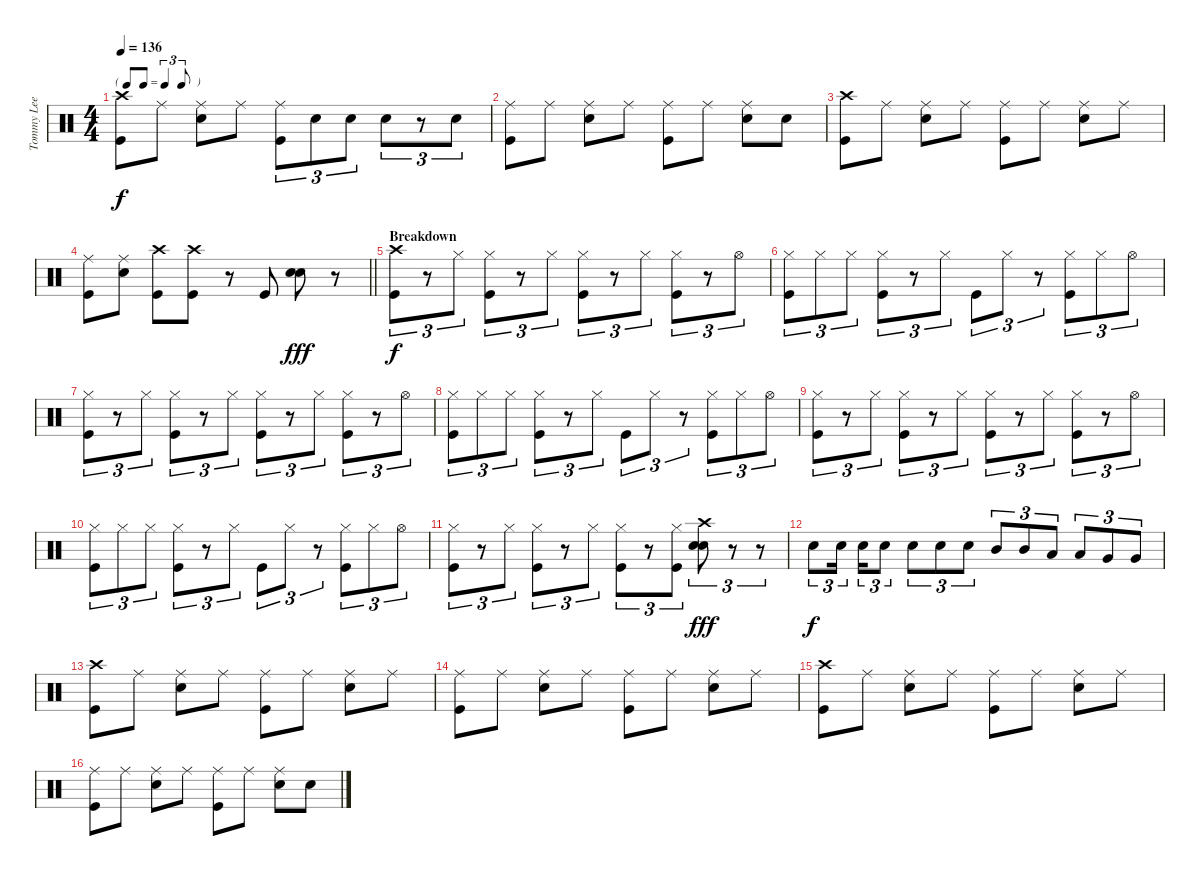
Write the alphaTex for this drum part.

\track ("Tommy Lee" "Tommy Lee") {instrument percussion}
\staff {score}
\articulation defaults
\ts (4 4)
\tf triplet8th
\tempo 136
\clef neutral
\ks c
("Crash high (hit)" "Kick (hit)").8{dy f} "Ride (middle)".8 ("Ride (middle)" "Snare (hit) 2").8 "Ride (middle)".8 ("Ride (middle)" "Kick (hit)").8{tu (3 2)} "Snare (hit) 2".8{tu (3 2)} "Snare (hit) 2".8{tu (3 2)} "Snare (hit) 2".8{tu (3 2)} r.8{tu (3 2)} "Snare (hit) 2".8{tu (3 2)} |
("Ride (middle)" "Kick (hit)").8 "Ride (middle)".8 ("Ride (middle)" "Snare (hit) 2").8 "Ride (middle)".8 ("Ride (middle)" "Kick (hit)").8 "Ride (middle)".8 ("Ride (middle)" "Snare (hit) 2").8 "Snare (hit) 2".8 |
("Crash high (hit)" "Kick (hit)").8 "Ride (middle)".8 ("Ride (middle)" "Snare (hit) 2").8 "Ride (middle)".8 ("Ride (middle)" "Kick (hit)").8 "Ride (middle)".8 ("Ride (middle)" "Snare (hit) 2").8 "Ride (middle)".8 |
\barLineRight lightlight
("Ride (middle)" "Kick (hit)").8 ("Ride (middle)" "Snare (hit) 2").8 ("Crash high (hit)" "Kick (hit)").8 ("Crash high (hit)" "Kick (hit)").8 r.8 "Kick (hit)".8 ("Snare (hit) 2" "Snare (hit) 2").8{dy fff} r.8 |
\section ("" "Breakdown")
("Crash high (hit)" "Kick (hit)").8{tu (3 2) dy f} r.8{tu (3 2)} "Hi-Hat (closed)".8{tu (3 2)} ("Hi-Hat (closed)" "Kick (hit)").8{tu (3 2)} r.8{tu (3 2)} "Hi-Hat (closed)".8{tu (3 2)} ("Hi-Hat (closed)" "Kick (hit)").8{tu (3 2)} r.8{tu (3 2)} "Hi-Hat (closed)".8{tu (3 2)} ("Hi-Hat (closed)" "Kick (hit)").8{tu (3 2)} r.8{tu (3 2)} "Hi-Hat (open)".8{tu (3 2)} |
("Hi-Hat (closed)" "Kick (hit)").8{tu (3 2)} "Hi-Hat (closed)".8{tu (3 2)} "Hi-Hat (closed)".8{tu (3 2)} ("Hi-Hat (closed)" "Kick (hit)").8{tu (3 2)} r.8{tu (3 2)} "Hi-Hat (closed)".8{tu (3 2)} "Kick (hit)".8{tu (3 2)} "Hi-Hat (closed)".8{tu (3 2)} r.8{tu (3 2)} ("Hi-Hat (closed)" "Kick (hit)").8{tu (3 2)} "Hi-Hat (closed)".8{tu (3 2)} "Hi-Hat (open)".8{tu (3 2)} |
("Hi-Hat (closed)" "Kick (hit)").8{tu (3 2)} r.8{tu (3 2)} "Hi-Hat (closed)".8{tu (3 2)} ("Hi-Hat (closed)" "Kick (hit)").8{tu (3 2)} r.8{tu (3 2)} "Hi-Hat (closed)".8{tu (3 2)} ("Hi-Hat (closed)" "Kick (hit)").8{tu (3 2)} r.8{tu (3 2)} "Hi-Hat (closed)".8{tu (3 2)} ("Hi-Hat (closed)" "Kick (hit)").8{tu (3 2)} r.8{tu (3 2)} "Hi-Hat (open)".8{tu (3 2)} |
("Hi-Hat (closed)" "Kick (hit)").8{tu (3 2)} "Hi-Hat (closed)".8{tu (3 2)} "Hi-Hat (closed)".8{tu (3 2)} ("Hi-Hat (closed)" "Kick (hit)").8{tu (3 2)} r.8{tu (3 2)} "Hi-Hat (closed)".8{tu (3 2)} "Kick (hit)".8{tu (3 2)} "Hi-Hat (closed)".8{tu (3 2)} r.8{tu (3 2)} ("Hi-Hat (closed)" "Kick (hit)").8{tu (3 2)} "Hi-Hat (closed)".8{tu (3 2)} "Hi-Hat (open)".8{tu (3 2)} |
("Hi-Hat (closed)" "Kick (hit)").8{tu (3 2)} r.8{tu (3 2)} "Hi-Hat (closed)".8{tu (3 2)} ("Hi-Hat (closed)" "Kick (hit)").8{tu (3 2)} r.8{tu (3 2)} "Hi-Hat (closed)".8{tu (3 2)} ("Hi-Hat (closed)" "Kick (hit)").8{tu (3 2)} r.8{tu (3 2)} "Hi-Hat (closed)".8{tu (3 2)} ("Hi-Hat (closed)" "Kick (hit)").8{tu (3 2)} r.8{tu (3 2)} "Hi-Hat (open)".8{tu (3 2)} |
("Hi-Hat (closed)" "Kick (hit)").8{tu (3 2)} "Hi-Hat (closed)".8{tu (3 2)} "Hi-Hat (closed)".8{tu (3 2)} ("Hi-Hat (closed)" "Kick (hit)").8{tu (3 2)} r.8{tu (3 2)} "Hi-Hat (closed)".8{tu (3 2)} "Kick (hit)".8{tu (3 2)} "Hi-Hat (closed)".8{tu (3 2)} r.8{tu (3 2)} ("Hi-Hat (closed)" "Kick (hit)").8{tu (3 2)} "Hi-Hat (closed)".8{tu (3 2)} "Hi-Hat (open)".8{tu (3 2)} |
("Hi-Hat (closed)" "Kick (hit)").8{tu (3 2)} r.8{tu (3 2)} "Hi-Hat (closed)".8{tu (3 2)} ("Hi-Hat (closed)" "Kick (hit)").8{tu (3 2)} r.8{tu (3 2)} "Hi-Hat (closed)".8{tu (3 2)} ("Hi-Hat (closed)" "Kick (hit)").8{tu (3 2)} r.8{tu (3 2)} ("Hi-Hat (closed)" "Kick (hit)").8{tu (3 2)} ("Crash high (hit)" "Snare (hit) 2" "Snare (hit) 2").8{tu (3 2) dy fff} r.8{tu (3 2)} r.8{tu (3 2)} |
"Snare (hit) 2".8{tu (3 2) dy f} "Snare (hit) 2".16{tu (3 2)} "Snare (hit) 2".16{tu (3 2)} "Snare (hit) 2".8{tu (3 2)} "Snare (hit) 2".8{tu (3 2)} "Snare (hit) 2".8{tu (3 2)} "Snare (hit) 2".8{tu (3 2)} "Mid Tom (hit)".8{tu (3 2)} "Mid Tom (hit)".8{tu (3 2)} "Low Tom (hit)".8{tu (3 2)} "Low Tom (hit)".8{tu (3 2)} "Very Low Tom (hit)".8{tu (3 2)} "Very Low Tom (hit)".8{tu (3 2)} |
("Crash high (hit)" "Kick (hit)").8 "Ride (middle)".8 ("Ride (middle)" "Snare (hit) 2").8 "Ride (middle)".8 ("Ride (middle)" "Kick (hit)").8 "Ride (middle)".8 ("Ride (middle)" "Snare (hit) 2").8 "Ride (middle)".8 |
("Ride (middle)" "Kick (hit)").8 "Ride (middle)".8 ("Ride (middle)" "Snare (hit) 2").8 "Ride (middle)".8 ("Ride (middle)" "Kick (hit)").8 "Ride (middle)".8 ("Ride (middle)" "Snare (hit) 2").8 "Ride (middle)".8 |
("Crash high (hit)" "Kick (hit)").8 "Ride (middle)".8 ("Ride (middle)" "Snare (hit) 2").8 "Ride (middle)".8 ("Ride (middle)" "Kick (hit)").8 "Ride (middle)".8 ("Ride (middle)" "Snare (hit) 2").8 "Ride (middle)".8 |
("Ride (middle)" "Kick (hit)").8 "Ride (middle)".8 ("Ride (middle)" "Snare (hit) 2").8 "Ride (middle)".8 ("Ride (middle)" "Kick (hit)").8 "Ride (middle)".8 ("Ride (middle)" "Snare (hit) 2").8 "Snare (hit) 2".8
